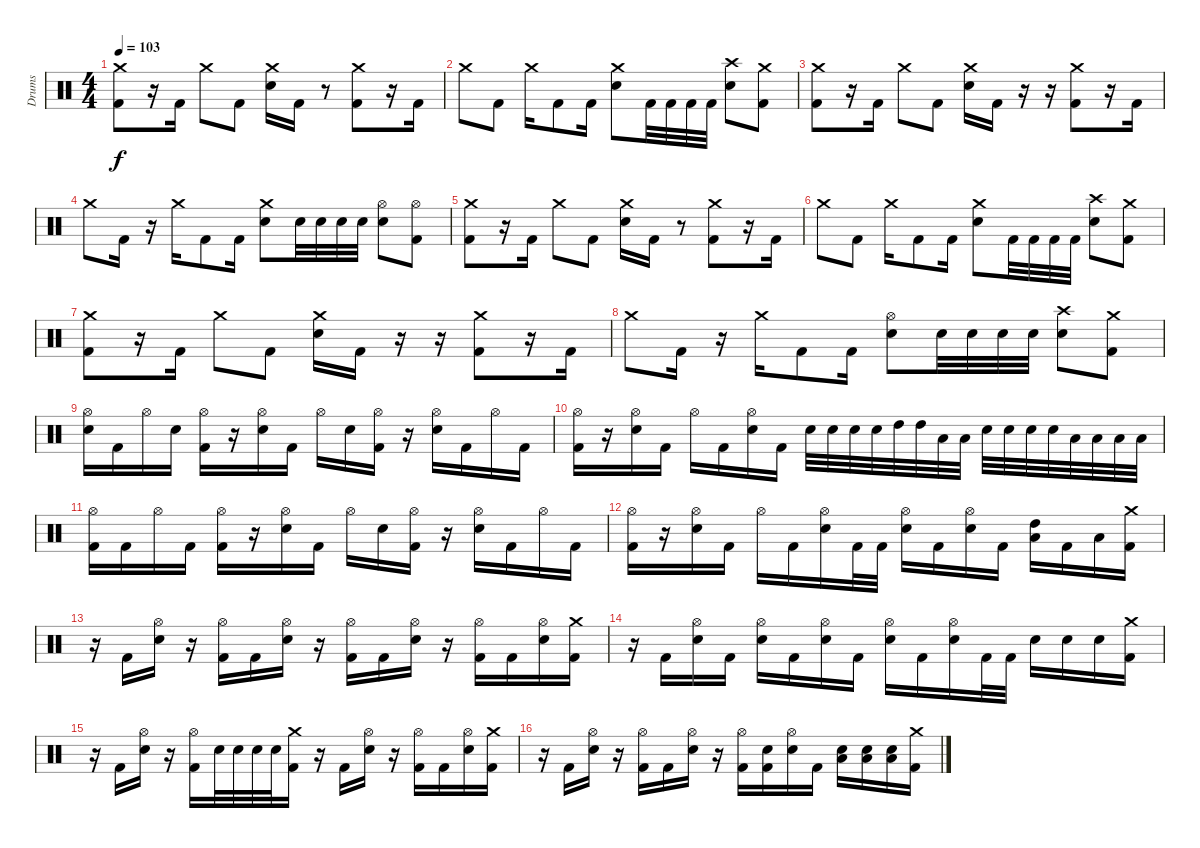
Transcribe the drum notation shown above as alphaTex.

\track ("Drums" "Drums") {instrument percussion}
\staff {score}
\articulation defaults
\ts (4 4)
\tempo 103
\clef neutral
\ks c
("Crash medium (hit)" "Kick (hit) 2").8{dy f} r.16 "Kick (hit) 2".16 "Crash medium (hit)".8 "Kick (hit) 2".8 ("Crash medium (hit)" "Electric Snare (hit)").16 "Kick (hit) 2".16 r.8 ("Crash medium (hit)" "Kick (hit) 2").8 r.16 "Kick (hit) 2".16 |
"Crash medium (hit)".8 "Kick (hit) 2".8 "Crash medium (hit)".16 "Kick (hit) 2".8 "Kick (hit) 2".16 ("Crash medium (hit)" "Electric Snare (hit)").8 "Kick (hit) 2".32 "Kick (hit) 2".32 "Kick (hit) 2".32 "Kick (hit) 2".32 ("Crash high (hit)" "Electric Snare (hit)").8 ("Crash medium (hit)" "Kick (hit) 2").8 |
("Crash medium (hit)" "Kick (hit) 2").8 r.16 "Kick (hit) 2".16 "Crash medium (hit)".8 "Kick (hit) 2".8 ("Crash medium (hit)" "Electric Snare (hit)").16 "Kick (hit) 2".16 r.16 r.16 ("Crash medium (hit)" "Kick (hit) 2").8 r.16 "Kick (hit) 2".16 |
"Crash medium (hit)".8 "Kick (hit) 2".16 r.16 "Crash medium (hit)".16 "Kick (hit) 2".8 "Kick (hit) 2".16 ("Crash medium (hit)" "Electric Snare (hit)").8 "Electric Snare (hit)".32 "Electric Snare (hit)".32 "Electric Snare (hit)".32 "Electric Snare (hit)".32 ("Hi-Hat (open)" "Electric Snare (hit)").8 ("Hi-Hat (open)" "Kick (hit) 2").8 |
("Crash medium (hit)" "Kick (hit) 2").8 r.16 "Kick (hit) 2".16 "Crash medium (hit)".8 "Kick (hit) 2".8 ("Crash medium (hit)" "Electric Snare (hit)").16 "Kick (hit) 2".16 r.8 ("Crash medium (hit)" "Kick (hit) 2").8 r.16 "Kick (hit) 2".16 |
"Crash medium (hit)".8 "Kick (hit) 2".8 "Crash medium (hit)".16 "Kick (hit) 2".8 "Kick (hit) 2".16 ("Crash medium (hit)" "Electric Snare (hit)").8 "Kick (hit) 2".32 "Kick (hit) 2".32 "Kick (hit) 2".32 "Kick (hit) 2".32 ("Crash high (hit)" "Electric Snare (hit)").8 ("Crash medium (hit)" "Kick (hit) 2").8 |
("Crash medium (hit)" "Kick (hit) 2").8 r.16 "Kick (hit) 2".16 "Crash medium (hit)".8 "Kick (hit) 2".8 ("Crash medium (hit)" "Electric Snare (hit)").16 "Kick (hit) 2".16 r.16 r.16 ("Crash medium (hit)" "Kick (hit) 2").8 r.16 "Kick (hit) 2".16 |
"Crash medium (hit)".8 "Kick (hit) 2".16 r.16 "Crash medium (hit)".16 "Kick (hit) 2".8 "Kick (hit) 2".16 ("Hi-Hat (open)" "Electric Snare (hit)").8 "Electric Snare (hit)".32 "Electric Snare (hit)".32 "Electric Snare (hit)".32 "Electric Snare (hit)".32 ("Crash high (hit)" "Electric Snare (hit)").8 ("Crash medium (hit)" "Kick (hit) 2").8 |
("Hi-Hat (open)" "Electric Snare (hit)").16 "Kick (hit) 2".16 "Hi-Hat (open)".16 "Electric Snare (hit)".16 ("Hi-Hat (open)" "Kick (hit) 2").16 r.16 ("Hi-Hat (open)" "Electric Snare (hit)").16 "Kick (hit) 2".16 "Hi-Hat (open)".16 "Electric Snare (hit)".16 ("Hi-Hat (open)" "Kick (hit) 2").16 r.16 ("Hi-Hat (open)" "Electric Snare (hit)").16 "Kick (hit) 2".16 "Hi-Hat (open)".16 "Kick (hit) 2".16 |
("Hi-Hat (open)" "Kick (hit) 2").16 r.16 ("Hi-Hat (open)" "Electric Snare (hit)").16 "Kick (hit) 2".16 "Hi-Hat (open)".16 "Kick (hit) 2".16 ("Hi-Hat (open)" "Electric Snare (hit)").16 "Kick (hit) 2".16 "Electric Snare (hit)".32 "Electric Snare (hit)".32 "Electric Snare (hit)".32 "Electric Snare (hit)".32 "High Tom (hit)".32 "High Tom (hit)".32 "Low Tom (hit)".32 "Low Tom (hit)".32 "Electric Snare (hit)".32 "Electric Snare (hit)".32 "Electric Snare (hit)".32 "Electric Snare (hit)".32 "Low Tom (hit)".32 "Low Tom (hit)".32 "Low Floor Tom (hit)".32 "Low Floor Tom (hit)".32 |
("Hi-Hat (open)" "Kick (hit) 2").16 "Kick (hit) 2".16 "Hi-Hat (open)".16 "Kick (hit) 2".16 ("Hi-Hat (open)" "Kick (hit) 2").16 r.16 ("Hi-Hat (open)" "Electric Snare (hit)").16 "Kick (hit) 2".16 "Hi-Hat (open)".16 "Electric Snare (hit)".16 ("Hi-Hat (open)" "Kick (hit) 2").16 r.16 ("Hi-Hat (open)" "Electric Snare (hit)").16 "Kick (hit) 2".16 "Hi-Hat (open)".16 "Kick (hit) 2".16 |
("Hi-Hat (open)" "Kick (hit) 2").16 r.16 ("Hi-Hat (open)" "Electric Snare (hit)").16 "Kick (hit) 2".16 "Hi-Hat (open)".16 "Kick (hit) 2".16 ("Hi-Hat (open)" "Electric Snare (hit)").16 "Kick (hit) 2".32 "Kick (hit) 2".32 ("Hi-Hat (open)" "Electric Snare (hit)").16 "Kick (hit) 2".16 ("Hi-Hat (open)" "Electric Snare (hit)").16 "Kick (hit) 2".16 ("High Tom (hit)" "Low Tom (hit)").16 "Kick (hit) 2".16 "Low Floor Tom (hit)".16 ("Crash medium (hit)" "Kick (hit) 2").16 |
r.16 "Kick (hit) 2".16 ("Hi-Hat (open)" "Electric Snare (hit)").16 r.16 ("Hi-Hat (open)" "Kick (hit) 2").16 "Kick (hit) 2".16 ("Hi-Hat (open)" "Electric Snare (hit)").16 r.16 ("Hi-Hat (open)" "Kick (hit) 2").16 "Kick (hit) 2".16 ("Hi-Hat (open)" "Electric Snare (hit)").16 r.16 ("Hi-Hat (open)" "Kick (hit) 2").16 "Kick (hit) 2".16 ("Hi-Hat (open)" "Electric Snare (hit)").16 ("Crash medium (hit)" "Kick (hit) 2").16 |
r.16 "Kick (hit) 2".16 ("Hi-Hat (open)" "Electric Snare (hit)").16 "Kick (hit) 2".16 ("Hi-Hat (open)" "Electric Snare (hit)").16 "Kick (hit) 2".16 ("Hi-Hat (open)" "Electric Snare (hit)").16 "Kick (hit) 2".16 ("Hi-Hat (open)" "Electric Snare (hit)").16 "Kick (hit) 2".16 ("Hi-Hat (open)" "Electric Snare (hit)").16 "Kick (hit) 2".32 "Kick (hit) 2".32 "Electric Snare (hit)".16 "Electric Snare (hit)".16 "Electric Snare (hit)".16 ("Crash medium (hit)" "Kick (hit) 2").16 |
r.16 "Kick (hit) 2".16 ("Hi-Hat (open)" "Electric Snare (hit)").16 r.16 ("Hi-Hat (open)" "Kick (hit) 2").16 "Electric Snare (hit)".32 "Electric Snare (hit)".32 "Electric Snare (hit)".32 "Electric Snare (hit)".32 ("Crash medium (hit)" "Kick (hit) 2").16 r.16 "Kick (hit) 2".16 ("Hi-Hat (open)" "Electric Snare (hit)").16 r.16 ("Hi-Hat (open)" "Kick (hit) 2").16 "Kick (hit) 2".16 ("Hi-Hat (open)" "Electric Snare (hit)").16 ("Crash medium (hit)" "Kick (hit) 2").16 |
r.16 "Kick (hit) 2".16 ("Hi-Hat (open)" "Electric Snare (hit)").16 r.16 ("Hi-Hat (open)" "Kick (hit) 2").16 "Kick (hit) 2".16 ("Hi-Hat (open)" "Electric Snare (hit)").16 r.16 ("Hi-Hat (open)" "Kick (hit) 2").16 ("Electric Snare (hit)" "Kick (hit) 2").16 ("Hi-Hat (open)" "Electric Snare (hit)").16 "Kick (hit) 2".16 ("Low Floor Tom (hit)" "Electric Snare (hit)").16 ("Low Floor Tom (hit)" "Electric Snare (hit)").16 ("Low Floor Tom (hit)" "Electric Snare (hit)").16 ("Crash medium (hit)" "Kick (hit) 2").16
